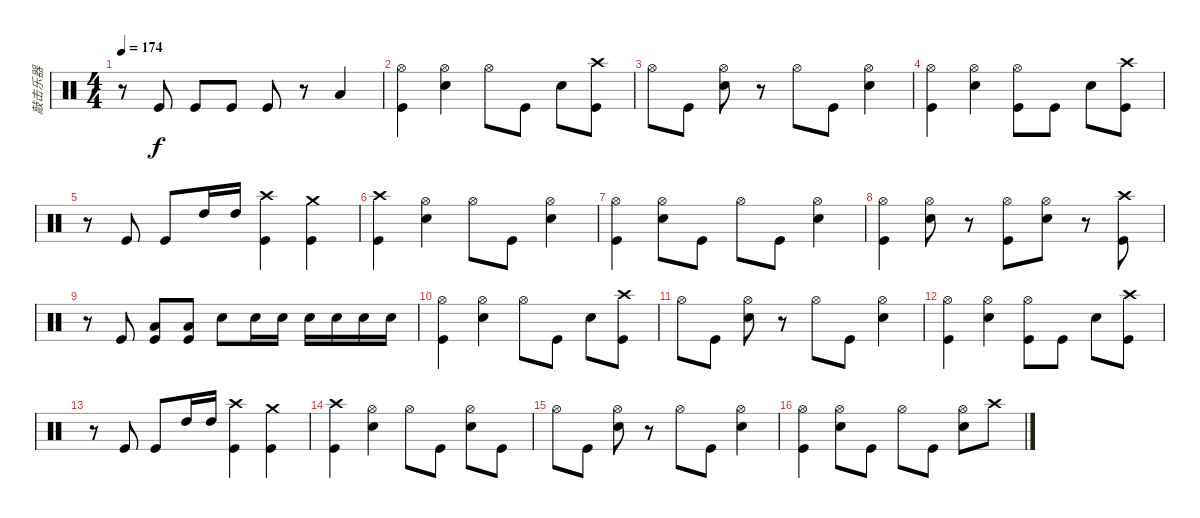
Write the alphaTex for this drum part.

\track ("敲击乐器" "敲击乐器") {instrument percussion}
\staff {score}
\articulation defaults
\ts (4 4)
\tempo 174
\clef neutral
\ks c
r.8{dy f} "Kick (hit)".8 "Kick (hit)".8 "Kick (hit)".8 "Kick (hit)".8 r.8 "Low Floor Tom (hit)".4 |
("Hi-Hat (open)" "Kick (hit)").4 ("Hi-Hat (open)" "Electric Snare (hit)").4 "Hi-Hat (open)".8 "Kick (hit)".8 "Electric Snare (hit)".8 ("Kick (hit)" "Crash high (hit)").8 |
"Hi-Hat (open)".8 "Kick (hit)".8 ("Hi-Hat (open)" "Electric Snare (hit)").8 r.8 "Hi-Hat (open)".8 "Kick (hit)".8 ("Hi-Hat (open)" "Electric Snare (hit)").4 |
("Hi-Hat (open)" "Kick (hit)").4 ("Hi-Hat (open)" "Electric Snare (hit)").4 ("Hi-Hat (open)" "Kick (hit)").8 "Kick (hit)".8 "Electric Snare (hit)".8 ("Kick (hit)" "Crash high (hit)").8 |
r.8 "Kick (hit)".8 "Kick (hit)".8 "High Tom (hit)".16 "High Tom (hit)".16 ("Kick (hit)" "Crash high (hit)").4 ("Kick (hit)" "Crash medium (hit)").4 |
("Crash high (hit)" "Kick (hit)").4 ("Hi-Hat (open)" "Electric Snare (hit)").4 "Hi-Hat (open)".8 "Kick (hit)".8 ("Electric Snare (hit)" "Hi-Hat (open)").4 |
("Kick (hit)" "Hi-Hat (open)").4 ("Electric Snare (hit)" "Hi-Hat (open)").8 "Kick (hit)".8 "Hi-Hat (open)".8 "Kick (hit)".8 ("Electric Snare (hit)" "Hi-Hat (open)").4 |
("Kick (hit)" "Hi-Hat (open)").4 ("Electric Snare (hit)" "Hi-Hat (open)").8 r.8 ("Kick (hit)" "Hi-Hat (open)").8 ("Electric Snare (hit)" "Hi-Hat (open)").8 r.8 ("Kick (hit)" "Crash high (hit)").8 |
r.8 "Kick (hit)".8 ("Kick (hit)" "Low Tom (hit)").8 ("Kick (hit)" "Low Tom (hit)").8 "Electric Snare (hit)".8 "Electric Snare (hit)".16 "Electric Snare (hit)".16 "Electric Snare (hit)".16 "Electric Snare (hit)".16 "Electric Snare (hit)".16 "Electric Snare (hit)".16 |
("Hi-Hat (open)" "Kick (hit)").4 ("Hi-Hat (open)" "Electric Snare (hit)").4 "Hi-Hat (open)".8 "Kick (hit)".8 "Electric Snare (hit)".8 ("Kick (hit)" "Crash high (hit)").8 |
"Hi-Hat (open)".8 "Kick (hit)".8 ("Hi-Hat (open)" "Electric Snare (hit)").8 r.8 "Hi-Hat (open)".8 "Kick (hit)".8 ("Hi-Hat (open)" "Electric Snare (hit)").4 |
("Hi-Hat (open)" "Kick (hit)").4 ("Hi-Hat (open)" "Electric Snare (hit)").4 ("Hi-Hat (open)" "Kick (hit)").8 "Kick (hit)".8 "Electric Snare (hit)".8 ("Kick (hit)" "Crash high (hit)").8 |
r.8 "Kick (hit)".8 "Kick (hit)".8 "High Tom (hit)".16 "High Tom (hit)".16 ("Kick (hit)" "Crash high (hit)").4 ("Kick (hit)" "Crash medium (hit)").4 |
("Crash high (hit)" "Kick (hit)").4 ("Hi-Hat (open)" "Electric Snare (hit)").4 "Hi-Hat (open)".8 "Kick (hit)".8 ("Electric Snare (hit)" "Hi-Hat (open)").8 "Kick (hit)".8 |
"Hi-Hat (open)".8 "Kick (hit)".8 ("Hi-Hat (open)" "Electric Snare (hit)").8 r.8 "Hi-Hat (open)".8 "Kick (hit)".8 ("Hi-Hat (open)" "Electric Snare (hit)").4 |
("Kick (hit)" "Hi-Hat (open)").4 ("Electric Snare (hit)" "Hi-Hat (open)").8 "Kick (hit)".8 "Hi-Hat (open)".8 "Kick (hit)".8 ("Electric Snare (hit)" "Hi-Hat (open)").8 "Crash high (hit)".8
